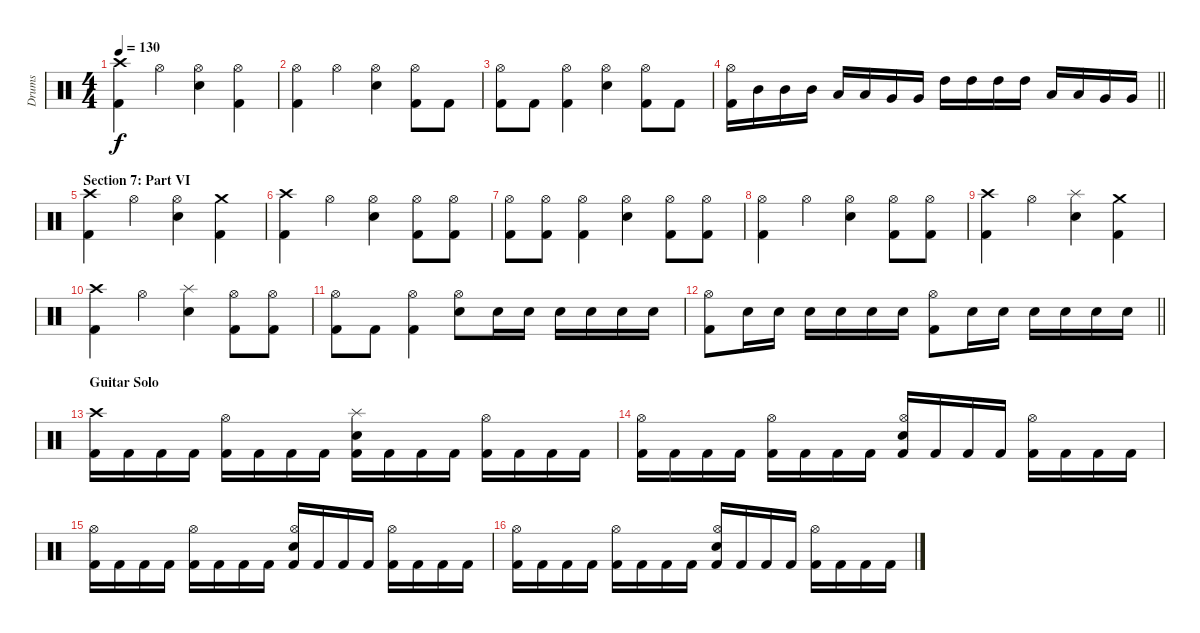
\track ("Drums" "Drums") {instrument percussion}
\staff {score}
\articulation defaults
\ts (4 4)
\tempo 130
\clef neutral
\ks c
("Crash high (hit)" "Kick (hit) 2").4{dy f} "Hi-Hat (open)".4 ("Hi-Hat (open)" "Electric Snare (hit)").4 ("Hi-Hat (open)" "Kick (hit) 2").4 |
("Hi-Hat (open)" "Kick (hit) 2").4 "Hi-Hat (open)".4 ("Hi-Hat (open)" "Electric Snare (hit)").4 ("Hi-Hat (open)" "Kick (hit) 2").8 "Kick (hit) 2".8 |
("Hi-Hat (open)" "Kick (hit) 2").8 "Kick (hit) 2".8 ("Hi-Hat (open)" "Kick (hit) 2").4 ("Hi-Hat (open)" "Electric Snare (hit)").4 ("Hi-Hat (open)" "Kick (hit) 2").8 "Kick (hit) 2".8 |
\barLineRight lightlight
("Hi-Hat (open)" "Kick (hit) 2").16 "Mid Tom (hit)".16 "Mid Tom (hit)".16 "Mid Tom (hit)".16 "Low Tom (hit)".16 "Low Tom (hit)".16 "Very Low Tom (hit)".16 "Very Low Tom (hit)".16 "High Tom (hit)".16 "High Tom (hit)".16 "High Tom (hit)".16 "High Tom (hit)".16 "Low Tom (hit)".16 "Low Tom (hit)".16 "Very Low Tom (hit)".16 "Very Low Tom (hit)".16 |
\section ("" "Section 7: Part VI")
("Crash high (hit)" "Kick (hit) 2").4 "Hi-Hat (open)".4 ("Hi-Hat (open)" "Electric Snare (hit)").4 ("Crash medium (hit)" "Kick (hit) 2").4 |
("Crash high (hit)" "Kick (hit) 2").4 "Hi-Hat (open)".4 ("Hi-Hat (open)" "Electric Snare (hit)").4 ("Hi-Hat (open)" "Kick (hit) 2").8 ("Hi-Hat (open)" "Kick (hit) 2").8 |
("Hi-Hat (open)" "Kick (hit) 2").8 ("Hi-Hat (open)" "Kick (hit) 2").8 ("Hi-Hat (open)" "Kick (hit) 2").4 ("Hi-Hat (open)" "Electric Snare (hit)").4 ("Hi-Hat (open)" "Kick (hit) 2").8 ("Hi-Hat (open)" "Kick (hit) 2").8 |
("Hi-Hat (open)" "Kick (hit) 2").4 "Hi-Hat (open)".4 ("Hi-Hat (open)" "Electric Snare (hit)").4 ("Hi-Hat (open)" "Kick (hit) 2").8 ("Hi-Hat (open)" "Kick (hit) 2").8 |
("Crash high (hit)" "Kick (hit) 2").4 "Hi-Hat (open)".4 ("Splash (hit)" "Electric Snare (hit)").4 ("Crash medium (hit)" "Kick (hit) 2").4 |
("Crash high (hit)" "Kick (hit) 2").4 "Hi-Hat (open)".4 ("Splash (hit)" "Electric Snare (hit)").4 ("Hi-Hat (open)" "Kick (hit) 2").8 ("Hi-Hat (open)" "Kick (hit) 2").8 |
("Hi-Hat (open)" "Kick (hit) 2").8 "Kick (hit) 2".8 ("Hi-Hat (open)" "Kick (hit) 2").4 ("Hi-Hat (open)" "Electric Snare (hit)").8 "Electric Snare (hit)".16 "Electric Snare (hit)".16 "Electric Snare (hit)".16 "Electric Snare (hit)".16 "Electric Snare (hit)".16 "Electric Snare (hit)".16 |
\barLineRight lightlight
("Hi-Hat (open)" "Kick (hit) 2").8 "Electric Snare (hit)".16 "Electric Snare (hit)".16 "Electric Snare (hit)".16 "Electric Snare (hit)".16 "Electric Snare (hit)".16 "Electric Snare (hit)".16 ("Hi-Hat (open)" "Kick (hit) 2").8 "Electric Snare (hit)".16 "Electric Snare (hit)".16 "Electric Snare (hit)".16 "Electric Snare (hit)".16 "Electric Snare (hit)".16 "Electric Snare (hit)".16 |
\section ("" "Guitar Solo")
("Crash high (hit)" "Kick (hit) 2").16 "Kick (hit) 2".16 "Kick (hit) 2".16 "Kick (hit) 2".16 ("Hi-Hat (open)" "Kick (hit) 2").16 "Kick (hit) 2".16 "Kick (hit) 2".16 "Kick (hit) 2".16 ("Splash (hit)" "Electric Snare (hit)" "Kick (hit) 2").16 "Kick (hit) 2".16 "Kick (hit) 2".16 "Kick (hit) 2".16 ("Hi-Hat (open)" "Kick (hit) 2").16 "Kick (hit) 2".16 "Kick (hit) 2".16 "Kick (hit) 2".16 |
("Hi-Hat (open)" "Kick (hit) 2").16 "Kick (hit) 2".16 "Kick (hit) 2".16 "Kick (hit) 2".16 ("Hi-Hat (open)" "Kick (hit) 2").16 "Kick (hit) 2".16 "Kick (hit) 2".16 "Kick (hit) 2".16 ("Hi-Hat (open)" "Electric Snare (hit)" "Kick (hit) 2").16 "Kick (hit) 2".16 "Kick (hit) 2".16 "Kick (hit) 2".16 ("Hi-Hat (open)" "Kick (hit) 2").16 "Kick (hit) 2".16 "Kick (hit) 2".16 "Kick (hit) 2".16 |
("Hi-Hat (open)" "Kick (hit) 2").16 "Kick (hit) 2".16 "Kick (hit) 2".16 "Kick (hit) 2".16 ("Hi-Hat (open)" "Kick (hit) 2").16 "Kick (hit) 2".16 "Kick (hit) 2".16 "Kick (hit) 2".16 ("Hi-Hat (open)" "Electric Snare (hit)" "Kick (hit) 2").16 "Kick (hit) 2".16 "Kick (hit) 2".16 "Kick (hit) 2".16 ("Hi-Hat (open)" "Kick (hit) 2").16 "Kick (hit) 2".16 "Kick (hit) 2".16 "Kick (hit) 2".16 |
("Hi-Hat (open)" "Kick (hit) 2").16 "Kick (hit) 2".16 "Kick (hit) 2".16 "Kick (hit) 2".16 ("Hi-Hat (open)" "Kick (hit) 2").16 "Kick (hit) 2".16 "Kick (hit) 2".16 "Kick (hit) 2".16 ("Hi-Hat (open)" "Electric Snare (hit)" "Kick (hit) 2").16 "Kick (hit) 2".16 "Kick (hit) 2".16 "Kick (hit) 2".16 ("Hi-Hat (open)" "Kick (hit) 2").16 "Kick (hit) 2".16 "Kick (hit) 2".16 "Kick (hit) 2".16
